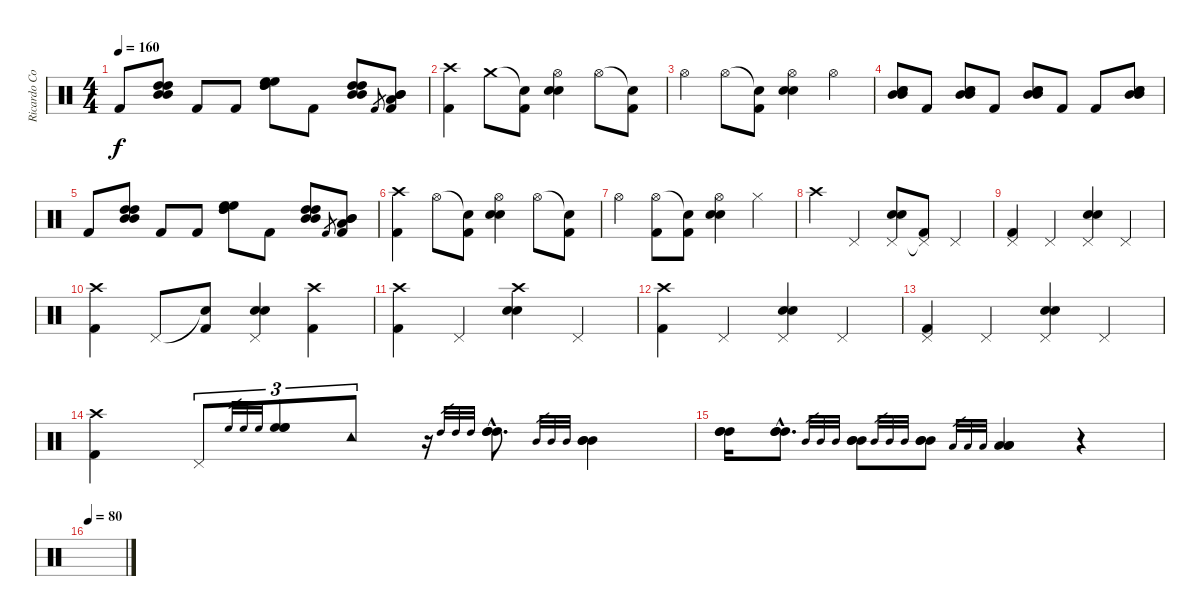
\track ("Ricardo Confessori" "Ricardo Co") {instrument percussion}
\staff {score}
\articulation defaults
\ts (4 4)
\tempo 160
\clef neutral
\ks c "Kick (hit) 2".8{dy f}
("High Tom (hit)" "High Tom (hit)" "Mid Tom (hit)" "Mid Tom (hit)").8 "Kick (hit) 2".8 "Kick (hit) 2".8 ("High Floor Tom (hit)" "High Floor Tom (hit)" "High Tom (hit)" "High Tom (hit)").8 "Kick (hit) 2".8 ("High Tom (hit)" "High Tom (hit)" "Mid Tom (hit)" "Mid Tom (hit)").8 "Kick (hit) 2".8{gr} ("Mid Tom (hit)" "Mid Tom (hit)" "Low Tom (hit)" "Kick (hit) 2").8 |
("Crash high (hit)" "Kick (hit) 2").4 "Crash medium (hit)".8 ("Snare (hit)"{t} "Kick (hit) 2").8 ("Hi-Hat (open)" "Electric Snare (hit)" "Snare (hit) 2").4 "Hi-Hat (open)".8 ("Snare (hit)"{t} "Kick (hit) 2").8 |
"Hi-Hat (open)".4 "Hi-Hat (open)".8 ("Snare (hit)"{t} "Kick (hit) 2").8 ("Hi-Hat (open)" "Electric Snare (hit)" "Snare (hit) 2").4 "Hi-Hat (open)".4 |
("Electric Snare (hit)" "Snare (hit) 2" "Mid Tom (hit)" "Mid Tom (hit)").8 "Kick (hit) 2".8 ("Electric Snare (hit)" "Snare (hit) 2" "Mid Tom (hit)" "Mid Tom (hit)").8 "Kick (hit) 2".8 ("Electric Snare (hit)" "Snare (hit) 2" "Mid Tom (hit)" "Mid Tom (hit)").8 "Kick (hit) 2".8 "Kick (hit) 2".8 ("Electric Snare (hit)" "Snare (hit) 2" "Mid Tom (hit)" "Mid Tom (hit)").8 |
"Kick (hit) 2".8 ("High Tom (hit)" "High Tom (hit)" "Mid Tom (hit)" "Mid Tom (hit)").8 "Kick (hit) 2".8 "Kick (hit) 2".8 ("High Floor Tom (hit)" "High Floor Tom (hit)" "High Tom (hit)" "High Tom (hit)").8 "Kick (hit) 2".8 ("High Tom (hit)" "High Tom (hit)" "Mid Tom (hit)" "Mid Tom (hit)").8 "Kick (hit) 2".8{gr} ("Mid Tom (hit)" "Mid Tom (hit)" "Low Tom (hit)" "Kick (hit) 2").8 |
("Crash high (hit)" "Kick (hit) 2").4 "Hi-Hat (open)".8 ("Snare (hit)"{t} "Kick (hit) 2").8 ("Hi-Hat (open)" "Electric Snare (hit)" "Snare (hit) 2").4 "Hi-Hat (open)".8 ("Snare (hit)"{t} "Kick (hit) 2").8 |
"Hi-Hat (open)".4 ("Hi-Hat (open)" "Kick (hit) 2").8 ("Snare (hit)"{t} "Kick (hit) 2").8 ("Hi-Hat (open)" "Electric Snare (hit)" "Snare (hit) 2").4 "Hi-Hat (closed)".4 |
"Crash high (hit)".4 "Pedal Hi-Hat (hit)".4 ("Pedal Hi-Hat (hit)" "Electric Snare (hit)" "Snare (hit) 2").8 ("Pedal Hi-Hat (hit)"{t} "Kick (hit) 2").8 "Pedal Hi-Hat (hit)".4 |
("Pedal Hi-Hat (hit)" "Kick (hit) 2").4 "Pedal Hi-Hat (hit)".4 ("Pedal Hi-Hat (hit)" "Electric Snare (hit)" "Snare (hit) 2").4 "Pedal Hi-Hat (hit)".4 |
("Crash high (hit)" "Kick (hit) 2").4 "Pedal Hi-Hat (hit)".8 ("Snare (hit)"{t} "Kick (hit) 2").8 ("Pedal Hi-Hat (hit)" "Electric Snare (hit)" "Snare (hit) 2").4 ("Crash high (hit)" "Kick (hit) 2").4 |
("Crash high (hit)" "Kick (hit) 2").4 "Pedal Hi-Hat (hit)".4 ("Crash high (hit)" "Electric Snare (hit)" "Snare (hit) 2").4 "Pedal Hi-Hat (hit)".4 |
("Crash high (hit)" "Kick (hit) 2").4 "Pedal Hi-Hat (hit)".4 ("Pedal Hi-Hat (hit)" "Electric Snare (hit)" "Snare (hit) 2").4 "Pedal Hi-Hat (hit)".4 |
("Pedal Hi-Hat (hit)" "Kick (hit) 2").4 "Pedal Hi-Hat (hit)".4 ("Pedal Hi-Hat (hit)" "Electric Snare (hit)" "Snare (hit) 2").4 "Pedal Hi-Hat (hit)".4 |
("Crash high (hit)" "Kick (hit) 2").4 "Pedal Hi-Hat (hit)".8{tu (3 2)} "High Floor Tom (hit)".32{gr} "High Floor Tom (hit)".32{gr} "High Floor Tom (hit)".32{gr} ("High Floor Tom (hit)" "High Floor Tom (hit)" "High Floor Tom (hit)").8{tu (3 2)} "Tambourine (hit)".8{tu (3 2)} r.16 "High Tom (hit)".32{gr} "High Tom (hit)".32{gr} "High Tom (hit)".32{gr} ("High Tom (hit)"{hac} "High Tom (hit)"{hac} "High Tom (hit)"{hac}).8{d} "Mid Tom (hit)".32{gr} "Mid Tom (hit)".32{gr} "Mid Tom (hit)".32{gr} ("Mid Tom (hit)" "Mid Tom (hit)" "Mid Tom (hit)").4 |
("High Tom (hit)" "High Tom (hit)" "High Tom (hit)").16 ("High Tom (hit)"{hac} "High Tom (hit)"{hac} "High Tom (hit)"{hac}).8{d} "Mid Tom (hit)".32{gr} "Mid Tom (hit)".32{gr} "Mid Tom (hit)".32{gr} ("Mid Tom (hit)" "Mid Tom (hit)" "Mid Tom (hit)").8 "Mid Tom (hit)".32{gr} "Mid Tom (hit)".32{gr} "Mid Tom (hit)".32{gr} ("Mid Tom (hit)" "Mid Tom (hit)" "Mid Tom (hit)").8 "Low Tom (hit)".32{gr} "Low Tom (hit)".32{gr} "Low Tom (hit)".32{gr} ("Low Tom (hit)" "Low Tom (hit)" "Low Tom (hit)").4 r.4 |
\tempo 80
